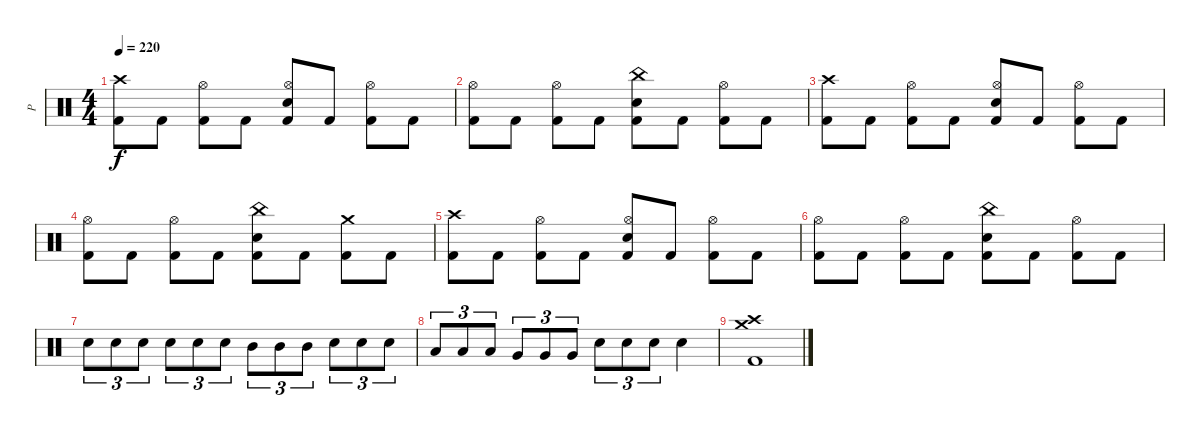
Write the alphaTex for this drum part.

\track ("P" "P") {instrument percussion}
\staff {score}
\articulation defaults
\ts (4 4)
\tempo 220
\clef neutral
\ks c
("Crash high (hit)" "Kick (hit) 2").8{dy f} "Kick (hit) 2".8 ("Hi-Hat (open)" "Kick (hit) 2").8 "Kick (hit) 2".8 ("Hi-Hat (open)" "Electric Snare (hit)" "Kick (hit) 2").8 "Kick (hit) 2".8 ("Hi-Hat (open)" "Kick (hit) 2").8 "Kick (hit) 2".8 |
("Hi-Hat (open)" "Kick (hit) 2").8 "Kick (hit) 2".8 ("Hi-Hat (open)" "Kick (hit) 2").8 "Kick (hit) 2".8 ("China (hit)" "Electric Snare (hit)" "Kick (hit) 2").8 "Kick (hit) 2".8 ("Hi-Hat (open)" "Kick (hit) 2").8 "Kick (hit) 2".8 |
("Crash high (hit)" "Kick (hit) 2").8 "Kick (hit) 2".8 ("Hi-Hat (open)" "Kick (hit) 2").8 "Kick (hit) 2".8 ("Hi-Hat (open)" "Electric Snare (hit)" "Kick (hit) 2").8 "Kick (hit) 2".8 ("Hi-Hat (open)" "Kick (hit) 2").8 "Kick (hit) 2".8 |
("Hi-Hat (open)" "Kick (hit) 2").8 "Kick (hit) 2".8 ("Hi-Hat (open)" "Kick (hit) 2").8 "Kick (hit) 2".8 ("China (hit)" "Electric Snare (hit)" "Kick (hit) 2").8 "Kick (hit) 2".8 ("Crash medium (hit)" "Kick (hit) 2").8 "Kick (hit) 2".8 |
("Crash high (hit)" "Kick (hit) 2").8 "Kick (hit) 2".8 ("Hi-Hat (open)" "Kick (hit) 2").8 "Kick (hit) 2".8 ("Hi-Hat (open)" "Electric Snare (hit)" "Kick (hit) 2").8 "Kick (hit) 2".8 ("Hi-Hat (open)" "Kick (hit) 2").8 "Kick (hit) 2".8 |
("Hi-Hat (open)" "Kick (hit) 2").8 "Kick (hit) 2".8 ("Hi-Hat (open)" "Kick (hit) 2").8 "Kick (hit) 2".8 ("China (hit)" "Electric Snare (hit)" "Kick (hit) 2").8 "Kick (hit) 2".8 ("Hi-Hat (open)" "Kick (hit) 2").8 "Kick (hit) 2".8 |
"Electric Snare (hit)".8{tu (3 2)} "Electric Snare (hit)".8{tu (3 2)} "Electric Snare (hit)".8{tu (3 2)} "Electric Snare (hit)".8{tu (3 2)} "Electric Snare (hit)".8{tu (3 2)} "Electric Snare (hit)".8{tu (3 2)} "Mid Tom (hit)".8{tu (3 2)} "Mid Tom (hit)".8{tu (3 2)} "Mid Tom (hit)".8{tu (3 2)} "Electric Snare (hit)".8{tu (3 2)} "Electric Snare (hit)".8{tu (3 2)} "Electric Snare (hit)".8{tu (3 2)} |
"Low Tom (hit)".8{tu (3 2)} "Low Tom (hit)".8{tu (3 2)} "Low Tom (hit)".8{tu (3 2)} "Very Low Tom (hit)".8{tu (3 2)} "Very Low Tom (hit)".8{tu (3 2)} "Very Low Tom (hit)".8{tu (3 2)} "Electric Snare (hit)".8{tu (3 2)} "Electric Snare (hit)".8{tu (3 2)} "Electric Snare (hit)".8{tu (3 2)} "Electric Snare (hit)".4 |
("Crash high (hit)" "Crash medium (hit)" "Kick (hit) 2").1
